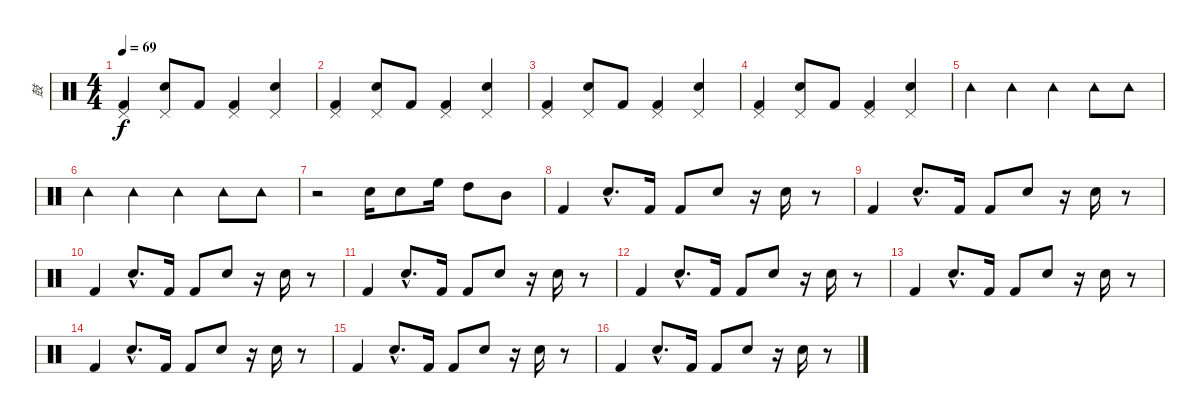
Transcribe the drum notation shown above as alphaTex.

\track ("鼓" "鼓") {instrument percussion}
\staff {score}
\articulation defaults
\ts (4 4)
\tempo 69
\clef neutral
\ks c
("Pedal Hi-Hat (hit)" "Kick (hit) 2").4{dy f} ("Pedal Hi-Hat (hit)" "Snare (hit) 2").8 "Kick (hit) 2".8 ("Pedal Hi-Hat (hit)" "Kick (hit) 2").4 ("Pedal Hi-Hat (hit)" "Snare (hit) 2").4 |
("Pedal Hi-Hat (hit)" "Kick (hit) 2").4 ("Pedal Hi-Hat (hit)" "Snare (hit) 2").8 "Kick (hit) 2".8 ("Pedal Hi-Hat (hit)" "Kick (hit) 2").4 ("Pedal Hi-Hat (hit)" "Snare (hit) 2").4 |
("Pedal Hi-Hat (hit)" "Kick (hit) 2").4 ("Pedal Hi-Hat (hit)" "Snare (hit) 2").8 "Kick (hit) 2".8 ("Pedal Hi-Hat (hit)" "Kick (hit) 2").4 ("Pedal Hi-Hat (hit)" "Snare (hit) 2").4 |
("Pedal Hi-Hat (hit)" "Kick (hit) 2").4 ("Pedal Hi-Hat (hit)" "Snare (hit) 2").8 "Kick (hit) 2".8 ("Pedal Hi-Hat (hit)" "Kick (hit) 2").4 ("Pedal Hi-Hat (hit)" "Snare (hit) 2").4 |
"Tambourine (hit)".4 "Tambourine (hit)".4 "Tambourine (hit)".4 "Tambourine (hit)".8 "Tambourine (hit)".8 |
"Tambourine (hit)".4 "Tambourine (hit)".4 "Tambourine (hit)".4 "Tambourine (hit)".8 "Tambourine (hit)".8 |
r.2 "Snare (hit) 2".16 "Snare (hit) 2".8 "High Floor Tom (hit)".16 "High Tom (hit)".8 "Mid Tom (hit)".8 |
"Kick (hit) 2".4 "Snare (hit) 2"{hac}.8{d} "Kick (hit) 2".16 "Kick (hit) 2".8 "Snare (hit) 2".8 r.16 "Snare (hit) 2".16 r.8 |
"Kick (hit) 2".4 "Snare (hit) 2"{hac}.8{d} "Kick (hit) 2".16 "Kick (hit) 2".8 "Snare (hit) 2".8 r.16 "Snare (hit) 2".16 r.8 |
"Kick (hit) 2".4 "Snare (hit) 2"{hac}.8{d} "Kick (hit) 2".16 "Kick (hit) 2".8 "Snare (hit) 2".8 r.16 "Snare (hit) 2".16 r.8 |
"Kick (hit) 2".4 "Snare (hit) 2"{hac}.8{d} "Kick (hit) 2".16 "Kick (hit) 2".8 "Snare (hit) 2".8 r.16 "Snare (hit) 2".16 r.8 |
"Kick (hit) 2".4 "Snare (hit) 2"{hac}.8{d} "Kick (hit) 2".16 "Kick (hit) 2".8 "Snare (hit) 2".8 r.16 "Snare (hit) 2".16 r.8 |
"Kick (hit) 2".4 "Snare (hit) 2"{hac}.8{d} "Kick (hit) 2".16 "Kick (hit) 2".8 "Snare (hit) 2".8 r.16 "Snare (hit) 2".16 r.8 |
"Kick (hit) 2".4 "Snare (hit) 2"{hac}.8{d} "Kick (hit) 2".16 "Kick (hit) 2".8 "Snare (hit) 2".8 r.16 "Snare (hit) 2".16 r.8 |
"Kick (hit) 2".4 "Snare (hit) 2"{hac}.8{d} "Kick (hit) 2".16 "Kick (hit) 2".8 "Snare (hit) 2".8 r.16 "Snare (hit) 2".16 r.8 |
"Kick (hit) 2".4 "Snare (hit) 2"{hac}.8{d} "Kick (hit) 2".16 "Kick (hit) 2".8 "Snare (hit) 2".8 r.16 "Snare (hit) 2".16 r.8
